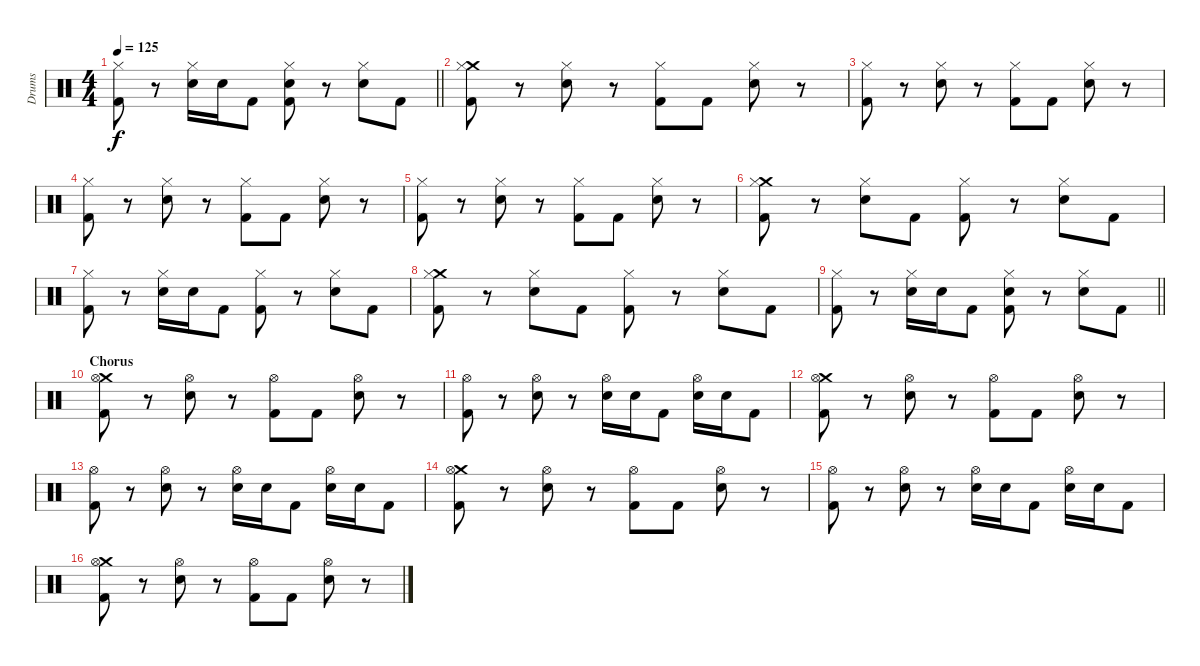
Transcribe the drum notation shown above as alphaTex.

\track ("Drums" "Drums") {instrument percussion}
\staff {score}
\articulation defaults
\ts (4 4)
\tempo 125
\clef neutral
\barLineRight lightlight
\ks c
("Hi-Hat (closed)" "Kick (hit) 2").8{dy f} r.8 ("Hi-Hat (closed)" "Electric Snare (hit)").16 "Electric Snare (hit)".16 "Kick (hit) 2".8 ("Hi-Hat (closed)" "Electric Snare (hit)" "Kick (hit) 2").8 r.8 ("Hi-Hat (closed)" "Electric Snare (hit)").8 "Kick (hit) 2".8 |
("Crash medium (hit)" "Hi-Hat (closed)" "Kick (hit) 2").8 r.8 ("Hi-Hat (closed)" "Electric Snare (hit)").8 r.8 ("Hi-Hat (closed)" "Kick (hit) 2").8 "Kick (hit) 2".8 ("Hi-Hat (closed)" "Electric Snare (hit)").8 r.8 |
("Hi-Hat (closed)" "Kick (hit) 2").8 r.8 ("Hi-Hat (closed)" "Electric Snare (hit)").8 r.8 ("Hi-Hat (closed)" "Kick (hit) 2").8 "Kick (hit) 2".8 ("Hi-Hat (closed)" "Electric Snare (hit)").8 r.8 |
("Hi-Hat (closed)" "Kick (hit) 2").8 r.8 ("Hi-Hat (closed)" "Electric Snare (hit)").8 r.8 ("Hi-Hat (closed)" "Kick (hit) 2").8 "Kick (hit) 2".8 ("Hi-Hat (closed)" "Electric Snare (hit)").8 r.8 |
("Hi-Hat (closed)" "Kick (hit) 2").8 r.8 ("Hi-Hat (closed)" "Electric Snare (hit)").8 r.8 ("Hi-Hat (closed)" "Kick (hit) 2").8 "Kick (hit) 2".8 ("Hi-Hat (closed)" "Electric Snare (hit)").8 r.8 |
("Crash medium (hit)" "Hi-Hat (closed)" "Kick (hit) 2").8 r.8 ("Hi-Hat (closed)" "Electric Snare (hit)").8 "Kick (hit) 2".8 ("Hi-Hat (closed)" "Kick (hit) 2").8 r.8 ("Hi-Hat (closed)" "Electric Snare (hit)").8 "Kick (hit) 2".8 |
("Hi-Hat (closed)" "Kick (hit) 2").8 r.8 ("Hi-Hat (closed)" "Electric Snare (hit)").16 "Electric Snare (hit)".16 "Kick (hit) 2".8 ("Hi-Hat (closed)" "Kick (hit) 2").8 r.8 ("Hi-Hat (closed)" "Electric Snare (hit)").8 "Kick (hit) 2".8 |
("Crash medium (hit)" "Hi-Hat (closed)" "Kick (hit) 2").8 r.8 ("Hi-Hat (closed)" "Electric Snare (hit)").8 "Kick (hit) 2".8 ("Hi-Hat (closed)" "Kick (hit) 2").8 r.8 ("Hi-Hat (closed)" "Electric Snare (hit)").8 "Kick (hit) 2".8 |
\barLineRight lightlight
("Hi-Hat (closed)" "Kick (hit) 2").8 r.8 ("Hi-Hat (closed)" "Electric Snare (hit)").16 "Electric Snare (hit)".16 "Kick (hit) 2".8 ("Hi-Hat (closed)" "Electric Snare (hit)" "Kick (hit) 2").8 r.8 ("Hi-Hat (closed)" "Electric Snare (hit)").8 "Kick (hit) 2".8 |
\section ("" "Chorus")
("Crash medium (hit)" "Hi-Hat (open)" "Kick (hit) 2").8 r.8 ("Hi-Hat (open)" "Electric Snare (hit)").8 r.8 ("Hi-Hat (open)" "Kick (hit) 2").8 "Kick (hit) 2".8 ("Hi-Hat (open)" "Electric Snare (hit)").8 r.8 |
("Hi-Hat (open)" "Kick (hit) 2").8 r.8 ("Hi-Hat (open)" "Electric Snare (hit)").8 r.8 ("Hi-Hat (open)" "Electric Snare (hit)").16 "Electric Snare (hit)".16 "Kick (hit) 2".8 ("Hi-Hat (open)" "Electric Snare (hit)").16 "Electric Snare (hit)".16 "Kick (hit) 2".8 |
("Crash medium (hit)" "Hi-Hat (open)" "Kick (hit) 2").8 r.8 ("Hi-Hat (open)" "Electric Snare (hit)").8 r.8 ("Hi-Hat (open)" "Kick (hit) 2").8 "Kick (hit) 2".8 ("Hi-Hat (open)" "Electric Snare (hit)").8 r.8 |
("Hi-Hat (open)" "Kick (hit) 2").8 r.8 ("Hi-Hat (open)" "Electric Snare (hit)").8 r.8 ("Hi-Hat (open)" "Electric Snare (hit)").16 "Electric Snare (hit)".16 "Kick (hit) 2".8 ("Hi-Hat (open)" "Electric Snare (hit)").16 "Electric Snare (hit)".16 "Kick (hit) 2".8 |
("Crash medium (hit)" "Hi-Hat (open)" "Kick (hit) 2").8 r.8 ("Hi-Hat (open)" "Electric Snare (hit)").8 r.8 ("Hi-Hat (open)" "Kick (hit) 2").8 "Kick (hit) 2".8 ("Hi-Hat (open)" "Electric Snare (hit)").8 r.8 |
("Hi-Hat (open)" "Kick (hit) 2").8 r.8 ("Hi-Hat (open)" "Electric Snare (hit)").8 r.8 ("Hi-Hat (open)" "Electric Snare (hit)").16 "Electric Snare (hit)".16 "Kick (hit) 2".8 ("Hi-Hat (open)" "Electric Snare (hit)").16 "Electric Snare (hit)".16 "Kick (hit) 2".8 |
("Crash medium (hit)" "Hi-Hat (open)" "Kick (hit) 2").8 r.8 ("Hi-Hat (open)" "Electric Snare (hit)").8 r.8 ("Hi-Hat (open)" "Kick (hit) 2").8 "Kick (hit) 2".8 ("Hi-Hat (open)" "Electric Snare (hit)").8 r.8
